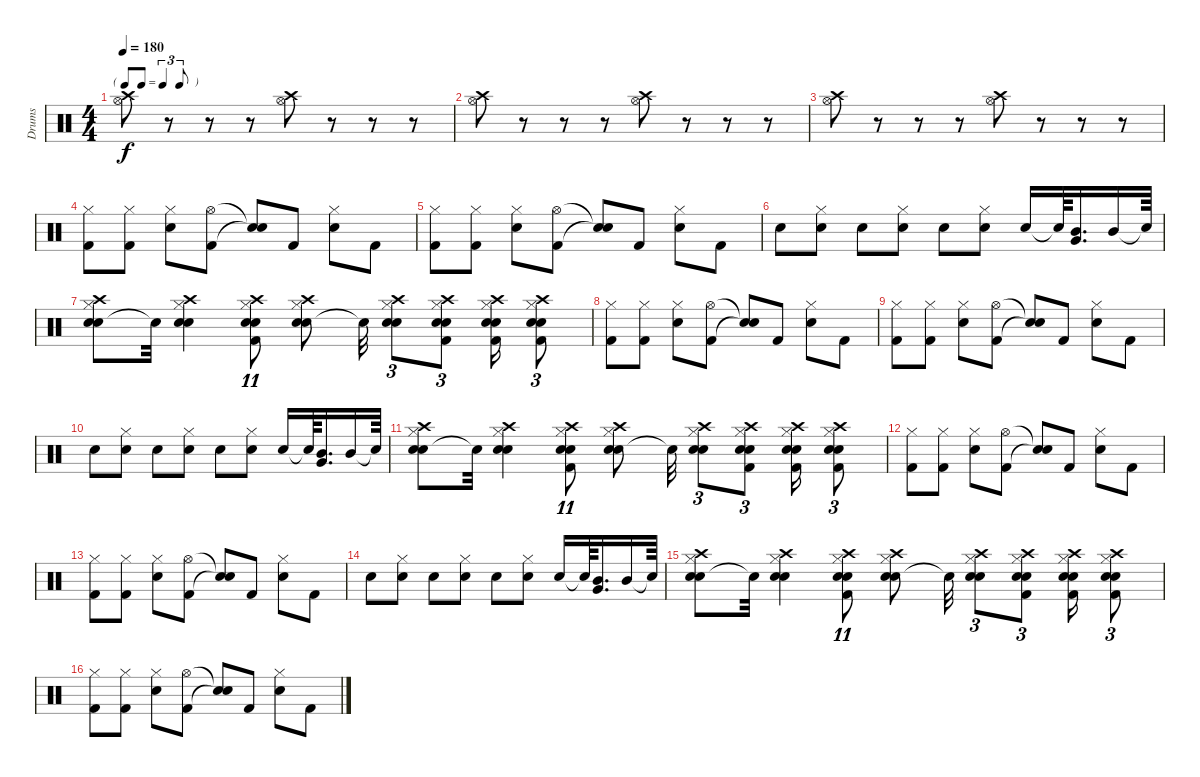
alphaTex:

\track ("Drums" "Drums") {instrument percussion}
\staff {score}
\articulation defaults
\ts (4 4)
\tf triplet8th
\tempo 180
\clef neutral
\ks c
("Hi-Hat (open)" "Crash high (hit)").8{dy f} r.8 r.8 r.8 ("Hi-Hat (open)" "Crash high (hit)").8 r.8 r.8 r.8 |
("Crash high (hit)" "Hi-Hat (open)").8 r.8 r.8 r.8 ("Crash high (hit)" "Hi-Hat (open)").8 r.8 r.8 r.8 |
("Hi-Hat (open)" "Crash high (hit)").8 r.8 r.8 r.8 ("Hi-Hat (open)" "Crash high (hit)").8 r.8 r.8 r.8 |
("Hi-Hat (closed)" "Kick (hit) 2").8 ("Hi-Hat (closed)" "Kick (hit) 2").8 ("Hi-Hat (closed)" "Electric Snare (hit)").8 ("Hi-Hat (open)" "Kick (hit) 2").8 ("Snare (hit)"{t} "Snare (hit)"{t}).8 "Kick (hit) 2".8 ("Hi-Hat (closed)" "Electric Snare (hit)").8 "Kick (hit) 2".8 |
("Hi-Hat (closed)" "Kick (hit) 2").8 ("Hi-Hat (closed)" "Kick (hit) 2").8 ("Hi-Hat (closed)" "Electric Snare (hit)").8 ("Hi-Hat (open)" "Kick (hit) 2").8 ("Snare (hit)"{t} "Snare (hit)"{t}).8 "Kick (hit) 2".8 ("Hi-Hat (closed)" "Electric Snare (hit)").8 "Kick (hit) 2".8 |
"Snare (hit) 2".8 ("Hi-Hat (closed)" "Snare (hit) 2").8 "Snare (hit) 2".8 ("Hi-Hat (closed)" "Snare (hit) 2").8 "Snare (hit) 2".8 ("Hi-Hat (closed)" "Snare (hit) 2").8 "Snare (hit) 2".16 "Snare (hit)"{t}.64 ("Mid Tom (hit)" "Very Low Tom (hit)").16{d} "Mid Tom (hit)".16 "Snare (hit)"{t}.64 |
("Snare (hit) 2" "Hi-Hat (closed)" "Crash high (hit)" "Electric Snare (hit)").8 "Snare (hit)"{t}.32 ("Snare (hit) 2" "Hi-Hat (closed)" "Crash high (hit)" "Electric Snare (hit)").4 ("Snare (hit) 2" "Kick (hit) 2" "Hi-Hat (closed)" "Crash high (hit)" "Electric Snare (hit)").8{tu (11 8)} ("Snare (hit) 2" "Hi-Hat (closed)" "Crash high (hit)" "Electric Snare (hit)").8 "Snare (hit)"{t}.32 ("Snare (hit) 2" "Hi-Hat (closed)" "Crash high (hit)" "Electric Snare (hit)").8{tu (3 2)} ("Snare (hit) 2" "Hi-Hat (closed)" "Crash high (hit)" "Kick (hit) 2" "Electric Snare (hit)").8{tu (3 2)} ("Snare (hit) 2" "Hi-Hat (closed)" "Crash high (hit)" "Kick (hit) 2" "Electric Snare (hit)").16 ("Snare (hit) 2" "Hi-Hat (closed)" "Crash high (hit)" "Kick (hit) 2" "Electric Snare (hit)").8{tu (3 2)} |
("Hi-Hat (closed)" "Kick (hit) 2").8 ("Hi-Hat (closed)" "Kick (hit) 2").8 ("Hi-Hat (closed)" "Electric Snare (hit)").8 ("Hi-Hat (open)" "Kick (hit) 2").8 ("Snare (hit)"{t} "Snare (hit)"{t}).8 "Kick (hit) 2".8 ("Hi-Hat (closed)" "Electric Snare (hit)").8 "Kick (hit) 2".8 |
("Hi-Hat (closed)" "Kick (hit) 2").8 ("Hi-Hat (closed)" "Kick (hit) 2").8 ("Hi-Hat (closed)" "Electric Snare (hit)").8 ("Hi-Hat (open)" "Kick (hit) 2").8 ("Snare (hit)"{t} "Snare (hit)"{t}).8 "Kick (hit) 2".8 ("Hi-Hat (closed)" "Electric Snare (hit)").8 "Kick (hit) 2".8 |
"Snare (hit) 2".8 ("Hi-Hat (closed)" "Snare (hit) 2").8 "Snare (hit) 2".8 ("Hi-Hat (closed)" "Snare (hit) 2").8 "Snare (hit) 2".8 ("Hi-Hat (closed)" "Snare (hit) 2").8 "Snare (hit) 2".16 "Snare (hit)"{t}.64 ("Mid Tom (hit)" "Very Low Tom (hit)").16{d} "Mid Tom (hit)".16 "Snare (hit)"{t}.64 |
("Snare (hit) 2" "Hi-Hat (closed)" "Crash high (hit)" "Electric Snare (hit)").8 "Snare (hit)"{t}.32 ("Snare (hit) 2" "Hi-Hat (closed)" "Crash high (hit)" "Electric Snare (hit)").4 ("Snare (hit) 2" "Kick (hit) 2" "Hi-Hat (closed)" "Crash high (hit)" "Electric Snare (hit)").8{tu (11 8)} ("Snare (hit) 2" "Hi-Hat (closed)" "Crash high (hit)" "Electric Snare (hit)").8 "Snare (hit)"{t}.32 ("Snare (hit) 2" "Hi-Hat (closed)" "Crash high (hit)" "Electric Snare (hit)").8{tu (3 2)} ("Snare (hit) 2" "Hi-Hat (closed)" "Crash high (hit)" "Kick (hit) 2" "Electric Snare (hit)").8{tu (3 2)} ("Snare (hit) 2" "Hi-Hat (closed)" "Crash high (hit)" "Kick (hit) 2" "Electric Snare (hit)").16 ("Snare (hit) 2" "Hi-Hat (closed)" "Crash high (hit)" "Kick (hit) 2" "Electric Snare (hit)").8{tu (3 2)} |
("Hi-Hat (closed)" "Kick (hit) 2").8 ("Hi-Hat (closed)" "Kick (hit) 2").8 ("Hi-Hat (closed)" "Electric Snare (hit)").8 ("Hi-Hat (open)" "Kick (hit) 2").8 ("Snare (hit)"{t} "Snare (hit)"{t}).8 "Kick (hit) 2".8 ("Hi-Hat (closed)" "Electric Snare (hit)").8 "Kick (hit) 2".8 |
("Hi-Hat (closed)" "Kick (hit) 2").8 ("Hi-Hat (closed)" "Kick (hit) 2").8 ("Hi-Hat (closed)" "Electric Snare (hit)").8 ("Hi-Hat (open)" "Kick (hit) 2").8 ("Snare (hit)"{t} "Snare (hit)"{t}).8 "Kick (hit) 2".8 ("Hi-Hat (closed)" "Electric Snare (hit)").8 "Kick (hit) 2".8 |
"Snare (hit) 2".8 ("Hi-Hat (closed)" "Snare (hit) 2").8 "Snare (hit) 2".8 ("Hi-Hat (closed)" "Snare (hit) 2").8 "Snare (hit) 2".8 ("Hi-Hat (closed)" "Snare (hit) 2").8 "Snare (hit) 2".16 "Snare (hit)"{t}.64 ("Mid Tom (hit)" "Very Low Tom (hit)").16{d} "Mid Tom (hit)".16 "Snare (hit)"{t}.64 |
("Snare (hit) 2" "Hi-Hat (closed)" "Crash high (hit)" "Electric Snare (hit)").8 "Snare (hit)"{t}.32 ("Snare (hit) 2" "Hi-Hat (closed)" "Crash high (hit)" "Electric Snare (hit)").4 ("Snare (hit) 2" "Kick (hit) 2" "Hi-Hat (closed)" "Crash high (hit)" "Electric Snare (hit)").8{tu (11 8)} ("Snare (hit) 2" "Hi-Hat (closed)" "Crash high (hit)" "Electric Snare (hit)").8 "Snare (hit)"{t}.32 ("Snare (hit) 2" "Hi-Hat (closed)" "Crash high (hit)" "Electric Snare (hit)").8{tu (3 2)} ("Snare (hit) 2" "Hi-Hat (closed)" "Crash high (hit)" "Kick (hit) 2" "Electric Snare (hit)").8{tu (3 2)} ("Snare (hit) 2" "Hi-Hat (closed)" "Crash high (hit)" "Kick (hit) 2" "Electric Snare (hit)").16 ("Snare (hit) 2" "Hi-Hat (closed)" "Crash high (hit)" "Kick (hit) 2" "Electric Snare (hit)").8{tu (3 2)} |
("Hi-Hat (closed)" "Kick (hit) 2").8 ("Hi-Hat (closed)" "Kick (hit) 2").8 ("Hi-Hat (closed)" "Electric Snare (hit)").8 ("Hi-Hat (open)" "Kick (hit) 2").8 ("Snare (hit)"{t} "Snare (hit)"{t}).8 "Kick (hit) 2".8 ("Hi-Hat (closed)" "Electric Snare (hit)").8 "Kick (hit) 2".8
